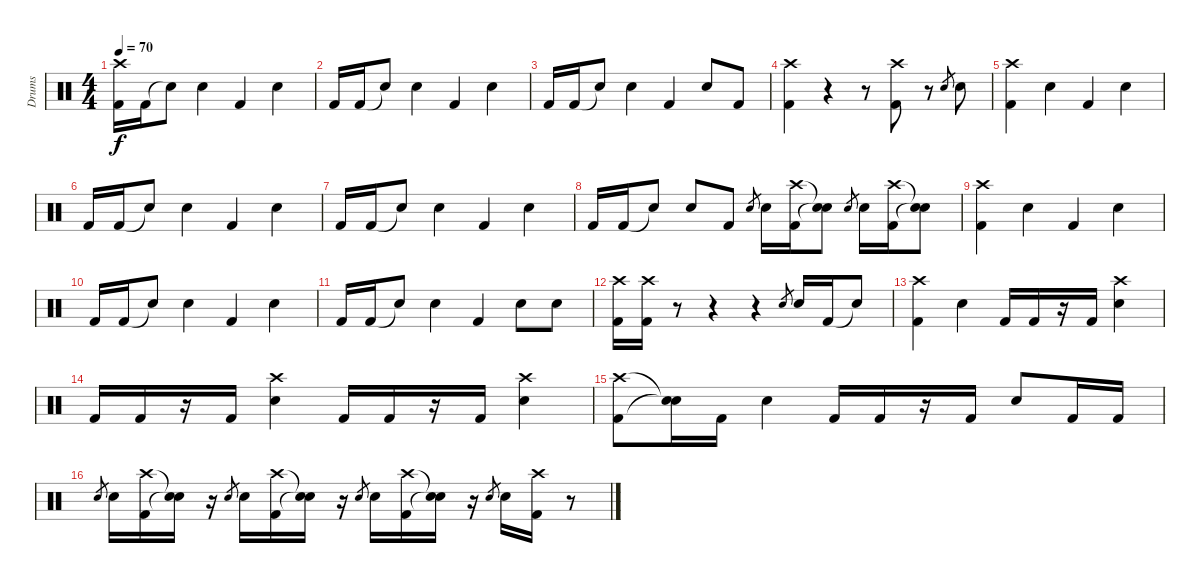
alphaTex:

\track ("Drums" "Drums") {instrument percussion}
\staff {score}
\articulation defaults
\ts (4 4)
\tempo 70
\clef neutral
\ks c
("Crash high (hit)" "Kick (hit) 2").16{dy f} "Kick (hit) 2".16 "Snare (hit)"{t}.8 "Electric Snare (hit)".4 "Kick (hit) 2".4 "Electric Snare (hit)".4 |
"Kick (hit) 2".16 "Kick (hit) 2".16 "Snare (hit)"{t}.8 "Electric Snare (hit)".4 "Kick (hit) 2".4 "Electric Snare (hit)".4 |
"Kick (hit) 2".16 "Kick (hit) 2".16 "Snare (hit)"{t}.8 "Electric Snare (hit)".4 "Kick (hit) 2".4 "Electric Snare (hit)".8 "Kick (hit) 2".8 |
("Crash high (hit)" "Kick (hit) 2").4 r.4 r.8 ("Crash high (hit)" "Kick (hit) 2").8 r.8 "Electric Snare (hit)".8{gr} "Electric Snare (hit)".8 |
("Crash high (hit)" "Kick (hit) 2").4 "Electric Snare (hit)".4 "Kick (hit) 2".4 "Electric Snare (hit)".4 |
"Kick (hit) 2".16 "Kick (hit) 2".16 "Snare (hit)"{t}.8 "Electric Snare (hit)".4 "Kick (hit) 2".4 "Electric Snare (hit)".4 |
"Kick (hit) 2".16 "Kick (hit) 2".16 "Snare (hit)"{t}.8 "Electric Snare (hit)".4 "Kick (hit) 2".4 "Electric Snare (hit)".4 |
"Kick (hit) 2".16 "Kick (hit) 2".16 "Snare (hit)"{t}.8 "Electric Snare (hit)".8 "Kick (hit) 2".8 "Electric Snare (hit)".8{gr} "Electric Snare (hit)".16 ("Crash high (hit)" "Kick (hit) 2").16 ("Snare (hit)"{t} "Snare (hit)"{t}).8 "Electric Snare (hit)".8{gr} "Electric Snare (hit)".16 ("Crash high (hit)" "Kick (hit) 2").16 ("Snare (hit)"{t} "Snare (hit)"{t}).8 |
("Crash high (hit)" "Kick (hit) 2").4 "Electric Snare (hit)".4 "Kick (hit) 2".4 "Electric Snare (hit)".4 |
"Kick (hit) 2".16 "Kick (hit) 2".16 "Snare (hit)"{t}.8 "Electric Snare (hit)".4 "Kick (hit) 2".4 "Electric Snare (hit)".4 |
"Kick (hit) 2".16 "Kick (hit) 2".16 "Snare (hit)"{t}.8 "Electric Snare (hit)".4 "Kick (hit) 2".4 "Electric Snare (hit)".8 "Electric Snare (hit)".8 |
("Crash high (hit)" "Kick (hit) 2").16 ("Crash high (hit)" "Kick (hit) 2").16 r.8 r.4 r.4 "Electric Snare (hit)".8{gr} "Electric Snare (hit)".16 "Kick (hit) 2".16 "Snare (hit)"{t}.8 |
("Crash high (hit)" "Kick (hit) 2").4 "Electric Snare (hit)".4 "Kick (hit) 2".16 "Kick (hit) 2".16 r.16 "Kick (hit) 2".16 ("Crash high (hit)" "Electric Snare (hit)").4 |
"Kick (hit) 2".16 "Kick (hit) 2".16 r.16 "Kick (hit) 2".16 ("Crash high (hit)" "Electric Snare (hit)").4 "Kick (hit) 2".16 "Kick (hit) 2".16 r.16 "Kick (hit) 2".16 ("Crash high (hit)" "Electric Snare (hit)").4 |
("Crash high (hit)" "Kick (hit) 2").8 ("Snare (hit)"{t} "Snare (hit)"{t}).16 "Kick (hit) 2".16 "Electric Snare (hit)".4 "Kick (hit) 2".16 "Kick (hit) 2".16 r.16 "Kick (hit) 2".16 "Electric Snare (hit)".8 "Kick (hit) 2".16 "Kick (hit) 2".16 |
"Electric Snare (hit)".8{gr} "Electric Snare (hit)".16 ("Crash high (hit)" "Kick (hit) 2").16 ("Snare (hit)"{t} "Snare (hit)"{t}).16 r.16 "Electric Snare (hit)".8{gr} "Electric Snare (hit)".16 ("Crash high (hit)" "Kick (hit) 2").16 ("Snare (hit)"{t} "Snare (hit)"{t}).16 r.16 "Electric Snare (hit)".8{gr} "Electric Snare (hit)".16 ("Crash high (hit)" "Kick (hit) 2").16 ("Snare (hit)"{t} "Snare (hit)"{t}).16 r.16 "Electric Snare (hit)".8{gr} "Electric Snare (hit)".16 ("Crash high (hit)" "Kick (hit) 2").16 r.8
